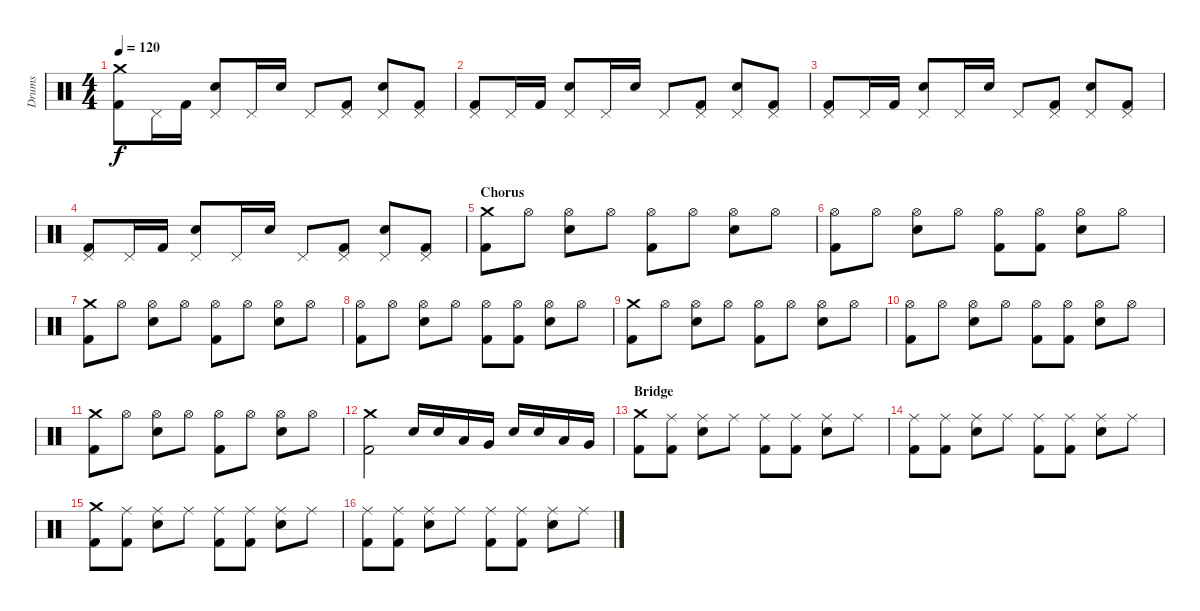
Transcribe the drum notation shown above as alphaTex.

\track ("Drums" "Drums") {instrument percussion}
\staff {score}
\articulation defaults
\ts (4 4)
\tempo 120
\clef neutral
\ks c
("Crash medium (hit)" "Kick (hit) 2").8{dy f} "Pedal Hi-Hat (hit)".16 "Kick (hit) 2".16 ("Pedal Hi-Hat (hit)" "Electric Snare (hit)").8 "Pedal Hi-Hat (hit)".16 "Electric Snare (hit)".16 "Pedal Hi-Hat (hit)".8 ("Pedal Hi-Hat (hit)" "Kick (hit) 2").8 ("Pedal Hi-Hat (hit)" "Electric Snare (hit)").8 ("Pedal Hi-Hat (hit)" "Kick (hit) 2").8 |
("Pedal Hi-Hat (hit)" "Kick (hit) 2").8 "Pedal Hi-Hat (hit)".16 "Kick (hit) 2".16 ("Pedal Hi-Hat (hit)" "Electric Snare (hit)").8 "Pedal Hi-Hat (hit)".16 "Electric Snare (hit)".16 "Pedal Hi-Hat (hit)".8 ("Pedal Hi-Hat (hit)" "Kick (hit) 2").8 ("Pedal Hi-Hat (hit)" "Electric Snare (hit)").8 ("Pedal Hi-Hat (hit)" "Kick (hit) 2").8 |
("Pedal Hi-Hat (hit)" "Kick (hit) 2").8 "Pedal Hi-Hat (hit)".16 "Kick (hit) 2".16 ("Pedal Hi-Hat (hit)" "Electric Snare (hit)").8 "Pedal Hi-Hat (hit)".16 "Electric Snare (hit)".16 "Pedal Hi-Hat (hit)".8 ("Pedal Hi-Hat (hit)" "Kick (hit) 2").8 ("Pedal Hi-Hat (hit)" "Electric Snare (hit)").8 ("Pedal Hi-Hat (hit)" "Kick (hit) 2").8 |
("Pedal Hi-Hat (hit)" "Kick (hit) 2").8 "Pedal Hi-Hat (hit)".16 "Kick (hit) 2".16 ("Pedal Hi-Hat (hit)" "Electric Snare (hit)").8 "Pedal Hi-Hat (hit)".16 "Electric Snare (hit)".16 "Pedal Hi-Hat (hit)".8 ("Pedal Hi-Hat (hit)" "Kick (hit) 2").8 ("Pedal Hi-Hat (hit)" "Electric Snare (hit)").8 ("Pedal Hi-Hat (hit)" "Kick (hit) 2").8 |
\section ("" "Chorus")
("Crash medium (hit)" "Kick (hit) 2").8 "Hi-Hat (open)".8 ("Hi-Hat (open)" "Electric Snare (hit)").8 "Hi-Hat (open)".8 ("Hi-Hat (open)" "Kick (hit) 2").8 "Hi-Hat (open)".8 ("Hi-Hat (open)" "Electric Snare (hit)").8 "Hi-Hat (open)".8 |
("Hi-Hat (open)" "Kick (hit) 2").8 "Hi-Hat (open)".8 ("Hi-Hat (open)" "Electric Snare (hit)").8 "Hi-Hat (open)".8 ("Hi-Hat (open)" "Kick (hit) 2").8 ("Hi-Hat (open)" "Kick (hit) 2").8 ("Hi-Hat (open)" "Electric Snare (hit)").8 "Hi-Hat (open)".8 |
("Crash medium (hit)" "Kick (hit) 2").8 "Hi-Hat (open)".8 ("Hi-Hat (open)" "Electric Snare (hit)").8 "Hi-Hat (open)".8 ("Hi-Hat (open)" "Kick (hit) 2").8 "Hi-Hat (open)".8 ("Hi-Hat (open)" "Electric Snare (hit)").8 "Hi-Hat (open)".8 |
("Hi-Hat (open)" "Kick (hit) 2").8 "Hi-Hat (open)".8 ("Hi-Hat (open)" "Electric Snare (hit)").8 "Hi-Hat (open)".8 ("Hi-Hat (open)" "Kick (hit) 2").8 ("Hi-Hat (open)" "Kick (hit) 2").8 ("Hi-Hat (open)" "Electric Snare (hit)").8 "Hi-Hat (open)".8 |
("Crash medium (hit)" "Kick (hit) 2").8 "Hi-Hat (open)".8 ("Hi-Hat (open)" "Electric Snare (hit)").8 "Hi-Hat (open)".8 ("Hi-Hat (open)" "Kick (hit) 2").8 "Hi-Hat (open)".8 ("Hi-Hat (open)" "Electric Snare (hit)").8 "Hi-Hat (open)".8 |
("Hi-Hat (open)" "Kick (hit) 2").8 "Hi-Hat (open)".8 ("Hi-Hat (open)" "Electric Snare (hit)").8 "Hi-Hat (open)".8 ("Hi-Hat (open)" "Kick (hit) 2").8 ("Hi-Hat (open)" "Kick (hit) 2").8 ("Hi-Hat (open)" "Electric Snare (hit)").8 "Hi-Hat (open)".8 |
("Crash medium (hit)" "Kick (hit) 2").8 "Hi-Hat (open)".8 ("Hi-Hat (open)" "Electric Snare (hit)").8 "Hi-Hat (open)".8 ("Hi-Hat (open)" "Kick (hit) 2").8 "Hi-Hat (open)".8 ("Hi-Hat (open)" "Electric Snare (hit)").8 "Hi-Hat (open)".8 |
("Crash medium (hit)" "Kick (hit) 2").2 "Electric Snare (hit)".16 "Electric Snare (hit)".16 "Low Tom (hit)".16 "Very Low Tom (hit)".16 "Electric Snare (hit)".16 "Electric Snare (hit)".16 "Low Tom (hit)".16 "Very Low Tom (hit)".16 |
\section ("" "Bridge")
("Crash medium (hit)" "Kick (hit) 2").8 ("Ride (middle)" "Kick (hit) 2").8 ("Ride (middle)" "Electric Snare (hit)").8 "Ride (middle)".8 ("Ride (middle)" "Kick (hit) 2").8 ("Ride (middle)" "Kick (hit) 2").8 ("Ride (middle)" "Electric Snare (hit)").8 "Ride (middle)".8 |
("Ride (middle)" "Kick (hit) 2").8 ("Ride (middle)" "Kick (hit) 2").8 ("Ride (middle)" "Electric Snare (hit)").8 "Ride (middle)".8 ("Ride (middle)" "Kick (hit) 2").8 ("Ride (middle)" "Kick (hit) 2").8 ("Ride (middle)" "Electric Snare (hit)").8 "Ride (middle)".8 |
("Crash medium (hit)" "Kick (hit) 2").8 ("Ride (middle)" "Kick (hit) 2").8 ("Ride (middle)" "Electric Snare (hit)").8 "Ride (middle)".8 ("Ride (middle)" "Kick (hit) 2").8 ("Ride (middle)" "Kick (hit) 2").8 ("Ride (middle)" "Electric Snare (hit)").8 "Ride (middle)".8 |
("Ride (middle)" "Kick (hit) 2").8 ("Ride (middle)" "Kick (hit) 2").8 ("Ride (middle)" "Electric Snare (hit)").8 "Ride (middle)".8 ("Ride (middle)" "Kick (hit) 2").8 ("Ride (middle)" "Kick (hit) 2").8 ("Ride (middle)" "Electric Snare (hit)").8 "Ride (middle)".8
